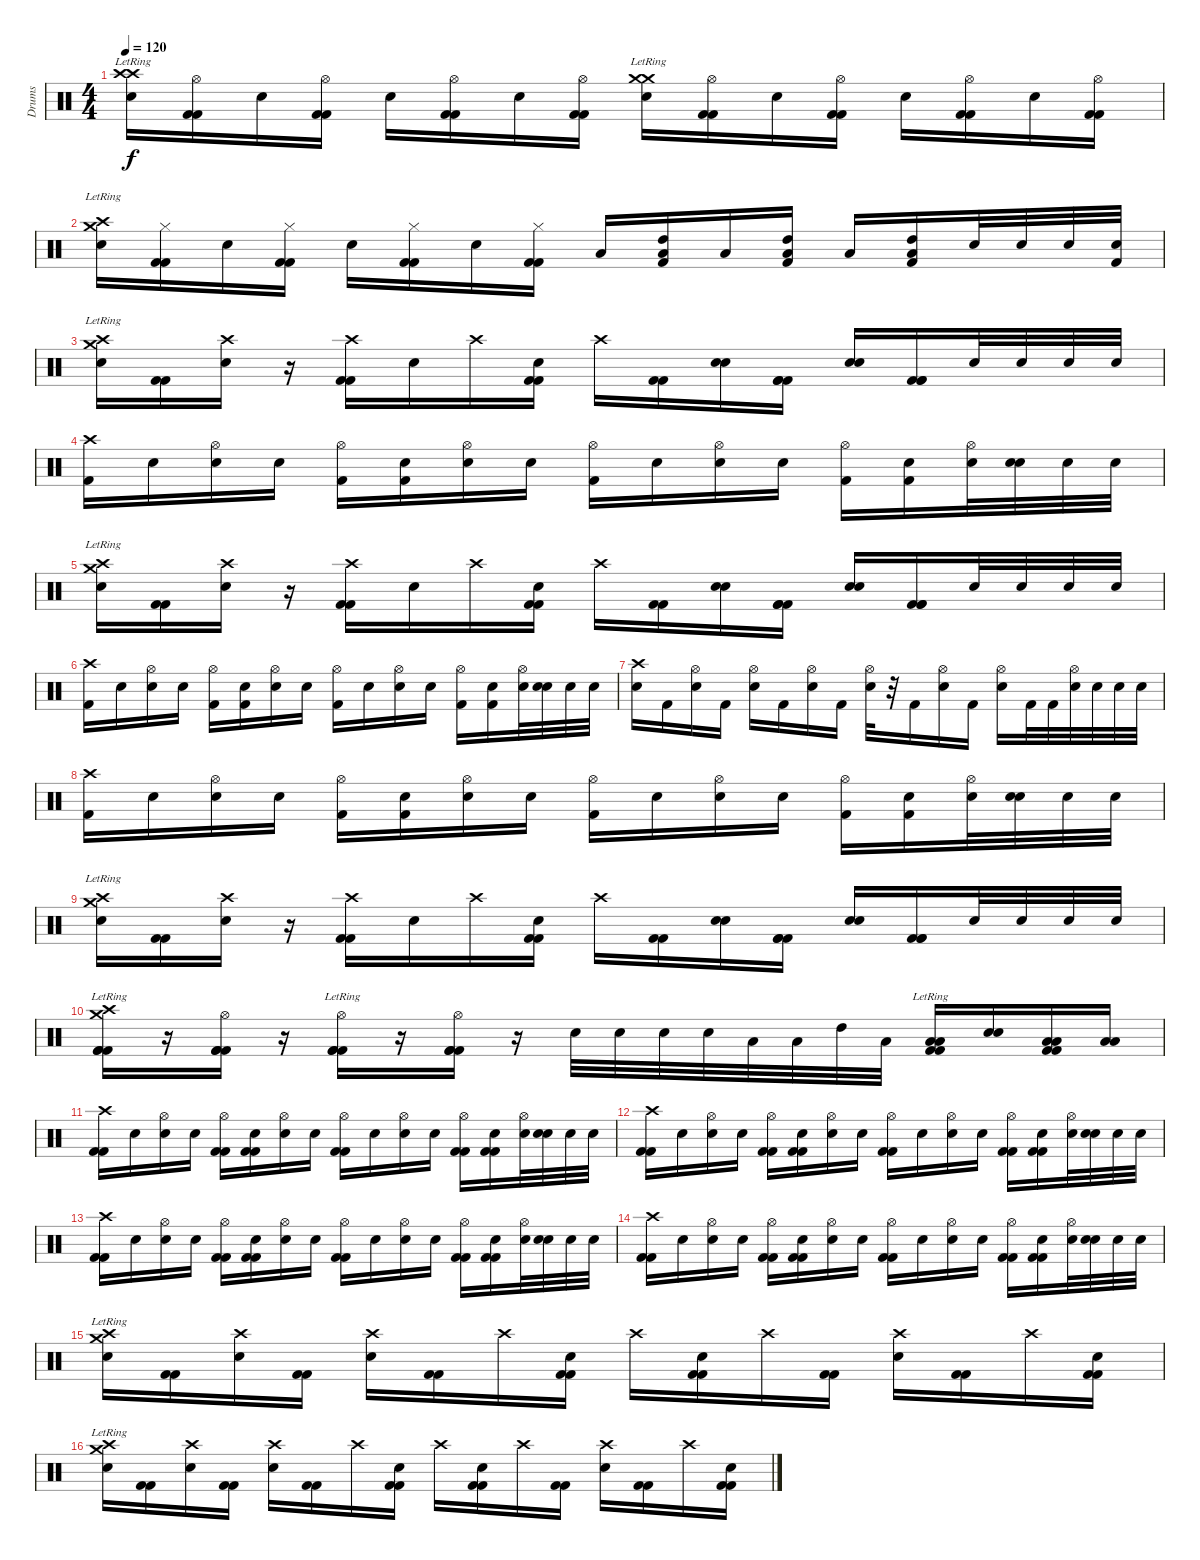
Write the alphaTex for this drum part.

\track ("Drums" "Drums") {instrument percussion}
\staff {score}
\articulation defaults
\ts (4 4)
\tempo 120
\clef neutral
\ks c
("Crash high (hit)"{lr} "Crash high (hit)"{lr} "Electric Snare (hit)").16{dy f} ("Hi-Hat (open)" "Kick (hit) 2" "Kick (hit) 2").16 "Electric Snare (hit)".16 ("Hi-Hat (open)" "Kick (hit) 2" "Kick (hit) 2").16 "Electric Snare (hit)".16 ("Hi-Hat (open)" "Kick (hit) 2" "Kick (hit) 2").16 "Electric Snare (hit)".16 ("Hi-Hat (open)" "Kick (hit) 2" "Kick (hit) 2").16 ("Crash medium (hit)"{lr} "Crash medium (hit)"{lr} "Electric Snare (hit)").16 ("Hi-Hat (open)" "Kick (hit) 2" "Kick (hit) 2").16 "Electric Snare (hit)".16 ("Hi-Hat (open)" "Kick (hit) 2" "Kick (hit) 2").16 "Electric Snare (hit)".16 ("Hi-Hat (open)" "Kick (hit) 2" "Kick (hit) 2").16 "Electric Snare (hit)".16 ("Hi-Hat (open)" "Kick (hit) 2" "Kick (hit) 2").16 |
("Crash medium (hit)"{lr} "Crash high (hit)"{lr} "Electric Snare (hit)").16 ("Hi-Hat (closed)" "Kick (hit) 2" "Kick (hit) 2").16 "Electric Snare (hit)".16 ("Hi-Hat (closed)" "Kick (hit) 2" "Kick (hit) 2").16 "Electric Snare (hit)".16 ("Hi-Hat (closed)" "Kick (hit) 2" "Kick (hit) 2").16 "Electric Snare (hit)".16 ("Hi-Hat (closed)" "Kick (hit) 2" "Kick (hit) 2").16 "Low Tom (hit)".16 ("Low Tom (hit)" "High Tom (hit)" "Kick (hit) 2").16 "Low Floor Tom (hit)".16 ("Low Floor Tom (hit)" "High Tom (hit)" "Kick (hit) 2").16 "Low Tom (hit)".16 ("Low Floor Tom (hit)" "High Tom (hit)" "Kick (hit) 2").16 "Electric Snare (hit)".32 "Electric Snare (hit)".32 "Electric Snare (hit)".32 ("Kick (hit) 2" "Electric Snare (hit)").32 |
("Crash medium (hit)"{lr} "Crash high (hit)"{lr} "Electric Snare (hit)").16 ("Kick (hit) 2" "Kick (hit) 2").16 ("Crash high (hit)" "Electric Snare (hit)").16 r.16 ("Crash high (hit)" "Kick (hit) 2" "Kick (hit) 2").16 "Electric Snare (hit)".16 "Crash high (hit)".16 ("Electric Snare (hit)" "Kick (hit) 2" "Kick (hit) 2").16 "Crash high (hit)".16 ("Kick (hit) 2" "Kick (hit) 2").16 ("Electric Snare (hit)" "Electric Snare (hit)").16 ("Kick (hit) 2" "Kick (hit) 2" "Kick (hit) 2").16 ("Electric Snare (hit)" "Electric Snare (hit)").16 ("Kick (hit) 2" "Kick (hit) 2" "Kick (hit) 2").16 "Electric Snare (hit)".32 "Electric Snare (hit)".32 "Electric Snare (hit)".32 "Electric Snare (hit)".32 |
("Crash high (hit)" "Kick (hit) 2").16 "Snare (hit)".16 ("Hi-Hat (open)" "Electric Snare (hit)").16 "Snare (hit)".16 ("Hi-Hat (open)" "Kick (hit) 2").16 ("Snare (hit)" "Kick (hit) 2").16 ("Hi-Hat (open)" "Electric Snare (hit)").16 "Snare (hit)".16 ("Hi-Hat (open)" "Kick (hit) 2").16 "Snare (hit)".16 ("Hi-Hat (open)" "Electric Snare (hit)").16 "Snare (hit)".16 ("Hi-Hat (open)" "Kick (hit) 2").16 ("Snare (hit)" "Kick (hit) 2").16 ("Hi-Hat (open)" "Electric Snare (hit)").32 ("Snare (hit)" "Electric Snare (hit)").32 "Electric Snare (hit)".32 "Electric Snare (hit)".32 |
("Crash medium (hit)"{lr} "Crash high (hit)"{lr} "Electric Snare (hit)").16 ("Kick (hit) 2" "Kick (hit) 2").16 ("Crash high (hit)" "Electric Snare (hit)").16 r.16 ("Crash high (hit)" "Kick (hit) 2" "Kick (hit) 2").16 "Electric Snare (hit)".16 "Crash high (hit)".16 ("Electric Snare (hit)" "Kick (hit) 2" "Kick (hit) 2").16 "Crash high (hit)".16 ("Kick (hit) 2" "Kick (hit) 2").16 ("Electric Snare (hit)" "Electric Snare (hit)").16 ("Kick (hit) 2" "Kick (hit) 2" "Kick (hit) 2").16 ("Electric Snare (hit)" "Electric Snare (hit)").16 ("Kick (hit) 2" "Kick (hit) 2" "Kick (hit) 2").16 "Electric Snare (hit)".32 "Electric Snare (hit)".32 "Electric Snare (hit)".32 "Electric Snare (hit)".32 |
("Crash high (hit)" "Kick (hit) 2").16 "Snare (hit)".16 ("Hi-Hat (open)" "Electric Snare (hit)").16 "Snare (hit)".16 ("Hi-Hat (open)" "Kick (hit) 2").16 ("Snare (hit)" "Kick (hit) 2").16 ("Hi-Hat (open)" "Electric Snare (hit)").16 "Snare (hit)".16 ("Hi-Hat (open)" "Kick (hit) 2").16 "Snare (hit)".16 ("Hi-Hat (open)" "Electric Snare (hit)").16 "Snare (hit)".16 ("Hi-Hat (open)" "Kick (hit) 2").16 ("Snare (hit)" "Kick (hit) 2").16 ("Hi-Hat (open)" "Electric Snare (hit)").32 ("Snare (hit)" "Electric Snare (hit)").32 "Electric Snare (hit)".32 "Electric Snare (hit)".32 |
("Crash high (hit)" "Electric Snare (hit)").16 "Kick (hit) 2".16 ("Hi-Hat (open)" "Electric Snare (hit)").16 "Kick (hit) 2".16 ("Hi-Hat (open)" "Electric Snare (hit)").16 "Kick (hit) 2".16 ("Hi-Hat (open)" "Electric Snare (hit)").16 "Kick (hit) 2".16 ("Hi-Hat (open)" "Electric Snare (hit)").32 r.32 "Kick (hit) 2".16 ("Hi-Hat (open)" "Electric Snare (hit)").16 "Kick (hit) 2".16 ("Hi-Hat (open)" "Electric Snare (hit)").16 "Kick (hit) 2".32 "Kick (hit) 2".32 ("Hi-Hat (open)" "Electric Snare (hit)").32 "Electric Snare (hit)".32 "Electric Snare (hit)".32 "Electric Snare (hit)".32 |
("Crash high (hit)" "Kick (hit) 2").16 "Snare (hit)".16 ("Hi-Hat (open)" "Electric Snare (hit)").16 "Snare (hit)".16 ("Hi-Hat (open)" "Kick (hit) 2").16 ("Snare (hit)" "Kick (hit) 2").16 ("Hi-Hat (open)" "Electric Snare (hit)").16 "Snare (hit)".16 ("Hi-Hat (open)" "Kick (hit) 2").16 "Snare (hit)".16 ("Hi-Hat (open)" "Electric Snare (hit)").16 "Snare (hit)".16 ("Hi-Hat (open)" "Kick (hit) 2").16 ("Snare (hit)" "Kick (hit) 2").16 ("Hi-Hat (open)" "Electric Snare (hit)").32 ("Snare (hit)" "Electric Snare (hit)").32 "Electric Snare (hit)".32 "Electric Snare (hit)".32 |
("Crash medium (hit)"{lr} "Crash high (hit)"{lr} "Electric Snare (hit)").16 ("Kick (hit) 2" "Kick (hit) 2").16 ("Crash high (hit)" "Electric Snare (hit)").16 r.16 ("Crash high (hit)" "Kick (hit) 2" "Kick (hit) 2").16 "Electric Snare (hit)".16 "Crash high (hit)".16 ("Electric Snare (hit)" "Kick (hit) 2" "Kick (hit) 2").16 "Crash high (hit)".16 ("Kick (hit) 2" "Kick (hit) 2").16 ("Electric Snare (hit)" "Electric Snare (hit)").16 ("Kick (hit) 2" "Kick (hit) 2" "Kick (hit) 2").16 ("Electric Snare (hit)" "Electric Snare (hit)").16 ("Kick (hit) 2" "Kick (hit) 2" "Kick (hit) 2").16 "Electric Snare (hit)".32 "Electric Snare (hit)".32 "Electric Snare (hit)".32 "Electric Snare (hit)".32 |
("Crash high (hit)"{lr} "Crash medium (hit)"{lr} "Kick (hit) 2" "Kick (hit) 2" "Kick (hit) 2").16 r.16 ("Hi-Hat (open)" "Kick (hit) 2" "Kick (hit) 2" "Kick (hit) 2").16 r.16 ("Hi-Hat (open)"{lr} "Kick (hit) 2" "Kick (hit) 2" "Kick (hit) 2").16 r.16 ("Hi-Hat (open)" "Kick (hit) 2" "Kick (hit) 2" "Kick (hit) 2").16 r.16 "Electric Snare (hit)".32 "Electric Snare (hit)".32 "Electric Snare (hit)".32 "Electric Snare (hit)".32 "Low Floor Tom (hit)".32 "Low Tom (hit)".32 "High Tom (hit)".32 "Low Tom (hit)".32 ("Low Floor Tom (hit)" "Low Floor Tom (hit)"{lr} "Kick (hit) 2" "Kick (hit) 2").16 ("Electric Snare (hit)" "Electric Snare (hit)").16 ("Low Floor Tom (hit)" "Low Floor Tom (hit)" "Kick (hit) 2" "Kick (hit) 2").16 ("Low Tom (hit)" "Low Tom (hit)").16 |
("Crash high (hit)" "Kick (hit) 2" "Kick (hit) 2").16 "Snare (hit)".16 ("Hi-Hat (open)" "Electric Snare (hit)").16 "Snare (hit)".16 ("Hi-Hat (open)" "Kick (hit) 2" "Kick (hit) 2").16 ("Snare (hit)" "Kick (hit) 2" "Kick (hit) 2").16 ("Hi-Hat (open)" "Electric Snare (hit)").16 "Snare (hit)".16 ("Hi-Hat (open)" "Kick (hit) 2" "Kick (hit) 2").16 "Snare (hit)".16 ("Hi-Hat (open)" "Electric Snare (hit)").16 "Snare (hit)".16 ("Hi-Hat (open)" "Kick (hit) 2" "Kick (hit) 2").16 ("Snare (hit)" "Kick (hit) 2" "Kick (hit) 2").16 ("Hi-Hat (open)" "Electric Snare (hit)").32 ("Snare (hit)" "Electric Snare (hit)").32 "Electric Snare (hit)".32 "Electric Snare (hit)".32 |
("Crash high (hit)" "Kick (hit) 2" "Kick (hit) 2").16 "Snare (hit)".16 ("Hi-Hat (open)" "Electric Snare (hit)").16 "Snare (hit)".16 ("Hi-Hat (open)" "Kick (hit) 2" "Kick (hit) 2").16 ("Snare (hit)" "Kick (hit) 2" "Kick (hit) 2").16 ("Hi-Hat (open)" "Electric Snare (hit)").16 "Snare (hit)".16 ("Hi-Hat (open)" "Kick (hit) 2" "Kick (hit) 2").16 "Snare (hit)".16 ("Hi-Hat (open)" "Electric Snare (hit)").16 "Snare (hit)".16 ("Hi-Hat (open)" "Kick (hit) 2" "Kick (hit) 2").16 ("Snare (hit)" "Kick (hit) 2" "Kick (hit) 2").16 ("Hi-Hat (open)" "Electric Snare (hit)").32 ("Snare (hit)" "Electric Snare (hit)").32 "Electric Snare (hit)".32 "Electric Snare (hit)".32 |
("Crash high (hit)" "Kick (hit) 2" "Kick (hit) 2").16 "Snare (hit)".16 ("Hi-Hat (open)" "Electric Snare (hit)").16 "Snare (hit)".16 ("Hi-Hat (open)" "Kick (hit) 2" "Kick (hit) 2").16 ("Snare (hit)" "Kick (hit) 2" "Kick (hit) 2").16 ("Hi-Hat (open)" "Electric Snare (hit)").16 "Snare (hit)".16 ("Hi-Hat (open)" "Kick (hit) 2" "Kick (hit) 2").16 "Snare (hit)".16 ("Hi-Hat (open)" "Electric Snare (hit)").16 "Snare (hit)".16 ("Hi-Hat (open)" "Kick (hit) 2" "Kick (hit) 2").16 ("Snare (hit)" "Kick (hit) 2" "Kick (hit) 2").16 ("Hi-Hat (open)" "Electric Snare (hit)").32 ("Snare (hit)" "Electric Snare (hit)").32 "Electric Snare (hit)".32 "Electric Snare (hit)".32 |
("Crash high (hit)" "Kick (hit) 2" "Kick (hit) 2").16 "Snare (hit)".16 ("Hi-Hat (open)" "Electric Snare (hit)").16 "Snare (hit)".16 ("Hi-Hat (open)" "Kick (hit) 2" "Kick (hit) 2").16 ("Snare (hit)" "Kick (hit) 2" "Kick (hit) 2").16 ("Hi-Hat (open)" "Electric Snare (hit)").16 "Snare (hit)".16 ("Hi-Hat (open)" "Kick (hit) 2" "Kick (hit) 2").16 "Snare (hit)".16 ("Hi-Hat (open)" "Electric Snare (hit)").16 "Snare (hit)".16 ("Hi-Hat (open)" "Kick (hit) 2" "Kick (hit) 2").16 ("Snare (hit)" "Kick (hit) 2" "Kick (hit) 2").16 ("Hi-Hat (open)" "Electric Snare (hit)").32 ("Snare (hit)" "Electric Snare (hit)").32 "Electric Snare (hit)".32 "Electric Snare (hit)".32 |
("Crash medium (hit)"{lr} "Crash high (hit)"{lr} "Electric Snare (hit)").16 ("Kick (hit) 2" "Kick (hit) 2").16 ("Crash high (hit)" "Electric Snare (hit)").16 ("Kick (hit) 2" "Kick (hit) 2").16 ("Crash high (hit)" "Electric Snare (hit)").16 ("Kick (hit) 2" "Kick (hit) 2").16 "Crash high (hit)".16 ("Electric Snare (hit)" "Kick (hit) 2" "Kick (hit) 2").16 "Crash high (hit)".16 ("Electric Snare (hit)" "Kick (hit) 2" "Kick (hit) 2").16 "Crash high (hit)".16 ("Kick (hit) 2" "Kick (hit) 2").16 ("Crash high (hit)" "Electric Snare (hit)").16 ("Kick (hit) 2" "Kick (hit) 2").16 "Crash high (hit)".16 ("Electric Snare (hit)" "Kick (hit) 2" "Kick (hit) 2").16 |
("Crash medium (hit)"{lr} "Crash high (hit)"{lr} "Electric Snare (hit)").16 ("Kick (hit) 2" "Kick (hit) 2").16 ("Crash high (hit)" "Electric Snare (hit)").16 ("Kick (hit) 2" "Kick (hit) 2").16 ("Crash high (hit)" "Electric Snare (hit)").16 ("Kick (hit) 2" "Kick (hit) 2").16 "Crash high (hit)".16 ("Electric Snare (hit)" "Kick (hit) 2" "Kick (hit) 2").16 "Crash high (hit)".16 ("Electric Snare (hit)" "Kick (hit) 2" "Kick (hit) 2").16 "Crash high (hit)".16 ("Kick (hit) 2" "Kick (hit) 2").16 ("Crash high (hit)" "Electric Snare (hit)").16 ("Kick (hit) 2" "Kick (hit) 2").16 "Crash high (hit)".16 ("Electric Snare (hit)" "Kick (hit) 2" "Kick (hit) 2").16
